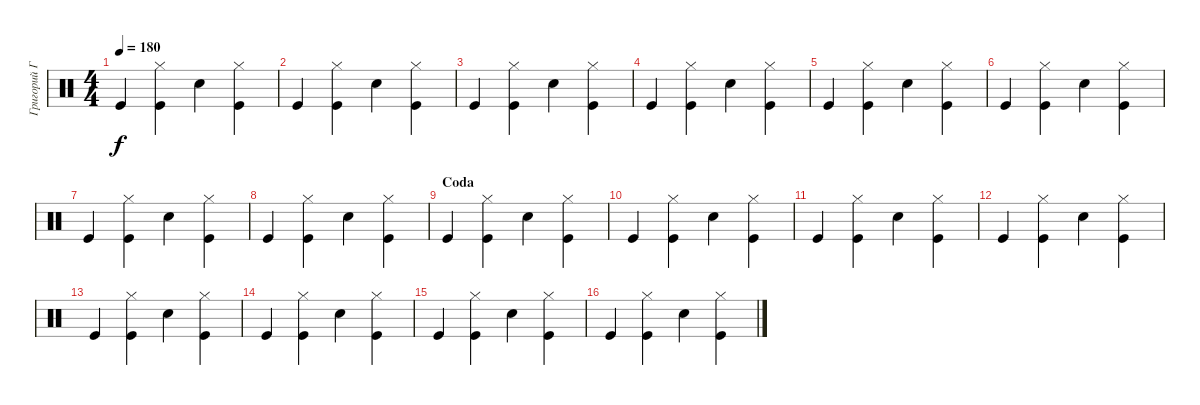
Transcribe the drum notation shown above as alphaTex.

\track ("Григорий Габерман" "Григорий Г") {instrument percussion}
\staff {score}
\articulation defaults
\ts (4 4)
\tempo 180
\clef neutral
\ks c "Kick (hit)".4{dy f}
("Kick (hit)" "Hi-Hat (closed)").4 "Snare (hit) 2".4 ("Kick (hit)" "Hi-Hat (closed)").4 |
"Kick (hit)".4 ("Kick (hit)" "Hi-Hat (closed)").4 "Snare (hit) 2".4 ("Kick (hit)" "Hi-Hat (closed)").4 |
"Kick (hit)".4 ("Kick (hit)" "Hi-Hat (closed)").4 "Snare (hit) 2".4 ("Kick (hit)" "Hi-Hat (closed)").4 |
"Kick (hit)".4 ("Kick (hit)" "Hi-Hat (closed)").4 "Snare (hit) 2".4 ("Kick (hit)" "Hi-Hat (closed)").4 |
"Kick (hit)".4 ("Kick (hit)" "Hi-Hat (closed)").4 "Snare (hit) 2".4 ("Kick (hit)" "Hi-Hat (closed)").4 |
"Kick (hit)".4 ("Kick (hit)" "Hi-Hat (closed)").4 "Snare (hit) 2".4 ("Kick (hit)" "Hi-Hat (closed)").4 |
"Kick (hit)".4 ("Kick (hit)" "Hi-Hat (closed)").4 "Snare (hit) 2".4 ("Kick (hit)" "Hi-Hat (closed)").4 |
"Kick (hit)".4 ("Kick (hit)" "Hi-Hat (closed)").4 "Snare (hit) 2".4 ("Kick (hit)" "Hi-Hat (closed)").4 |
\section ("" "Coda")
"Kick (hit)".4 ("Kick (hit)" "Hi-Hat (closed)").4 "Snare (hit) 2".4 ("Kick (hit)" "Hi-Hat (closed)").4 |
"Kick (hit)".4 ("Kick (hit)" "Hi-Hat (closed)").4 "Snare (hit) 2".4 ("Kick (hit)" "Hi-Hat (closed)").4 |
"Kick (hit)".4 ("Kick (hit)" "Hi-Hat (closed)").4 "Snare (hit) 2".4 ("Kick (hit)" "Hi-Hat (closed)").4 |
"Kick (hit)".4 ("Kick (hit)" "Hi-Hat (closed)").4 "Snare (hit) 2".4 ("Kick (hit)" "Hi-Hat (closed)").4 |
"Kick (hit)".4 ("Kick (hit)" "Hi-Hat (closed)").4 "Snare (hit) 2".4 ("Kick (hit)" "Hi-Hat (closed)").4 |
"Kick (hit)".4 ("Kick (hit)" "Hi-Hat (closed)").4 "Snare (hit) 2".4 ("Kick (hit)" "Hi-Hat (closed)").4 |
"Kick (hit)".4 ("Kick (hit)" "Hi-Hat (closed)").4 "Snare (hit) 2".4 ("Kick (hit)" "Hi-Hat (closed)").4 |
"Kick (hit)".4 ("Kick (hit)" "Hi-Hat (closed)").4 "Snare (hit) 2".4 ("Kick (hit)" "Hi-Hat (closed)").4
